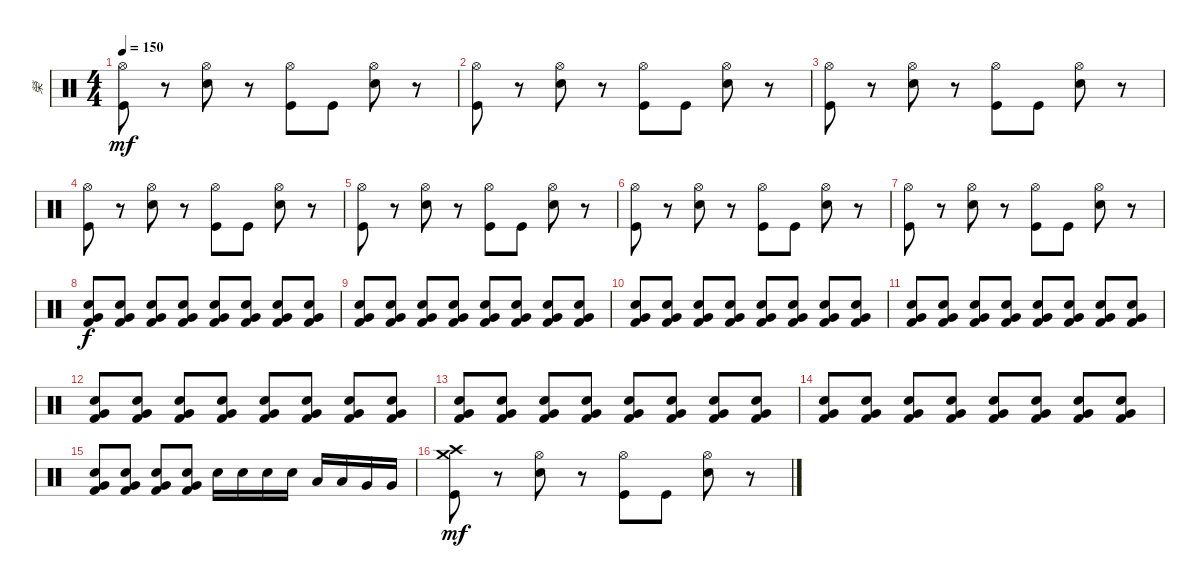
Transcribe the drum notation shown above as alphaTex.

\track ("榮" "榮") {instrument percussion}
\staff {score}
\articulation defaults
\ts (4 4)
\tempo 150
\clef neutral
\ks c
("Hi-Hat (open)" "Kick (hit)").8{dy mf} r.8 ("Hi-Hat (open)" "Snare (hit) 2").8 r.8 ("Hi-Hat (open)" "Kick (hit)").8 "Kick (hit)".8 ("Hi-Hat (open)" "Snare (hit) 2").8 r.8 |
("Hi-Hat (open)" "Kick (hit)").8 r.8 ("Hi-Hat (open)" "Snare (hit) 2").8 r.8 ("Hi-Hat (open)" "Kick (hit)").8 "Kick (hit)".8 ("Hi-Hat (open)" "Snare (hit) 2").8 r.8 |
("Hi-Hat (open)" "Kick (hit)").8 r.8 ("Hi-Hat (open)" "Snare (hit) 2").8 r.8 ("Hi-Hat (open)" "Kick (hit)").8 "Kick (hit)".8 ("Hi-Hat (open)" "Snare (hit) 2").8 r.8 |
("Hi-Hat (open)" "Kick (hit)").8 r.8 ("Hi-Hat (open)" "Snare (hit) 2").8 r.8 ("Hi-Hat (open)" "Kick (hit)").8 "Kick (hit)".8 ("Hi-Hat (open)" "Snare (hit) 2").8 r.8 |
("Hi-Hat (open)" "Kick (hit)").8 r.8 ("Hi-Hat (open)" "Snare (hit) 2").8 r.8 ("Hi-Hat (open)" "Kick (hit)").8 "Kick (hit)".8 ("Hi-Hat (open)" "Snare (hit) 2").8 r.8 |
("Hi-Hat (open)" "Kick (hit)").8 r.8 ("Hi-Hat (open)" "Snare (hit) 2").8 r.8 ("Hi-Hat (open)" "Kick (hit)").8 "Kick (hit)".8 ("Hi-Hat (open)" "Snare (hit) 2").8 r.8 |
("Hi-Hat (open)" "Kick (hit)").8 r.8 ("Hi-Hat (open)" "Snare (hit) 2").8 r.8 ("Hi-Hat (open)" "Kick (hit)").8 "Kick (hit)".8 ("Hi-Hat (open)" "Snare (hit) 2").8 r.8 |
("Electric Snare (hit)" "Very Low Tom (hit)" "Kick (hit) 2").8{dy f} ("Electric Snare (hit)" "Very Low Tom (hit)" "Kick (hit) 2").8 ("Electric Snare (hit)" "Very Low Tom (hit)" "Kick (hit) 2").8 ("Electric Snare (hit)" "Very Low Tom (hit)" "Kick (hit) 2").8 ("Electric Snare (hit)" "Very Low Tom (hit)" "Kick (hit) 2").8 ("Electric Snare (hit)" "Very Low Tom (hit)" "Kick (hit) 2").8 ("Electric Snare (hit)" "Very Low Tom (hit)" "Kick (hit) 2").8 ("Electric Snare (hit)" "Very Low Tom (hit)" "Kick (hit) 2").8 |
("Electric Snare (hit)" "Very Low Tom (hit)" "Kick (hit) 2").8 ("Electric Snare (hit)" "Very Low Tom (hit)" "Kick (hit) 2").8 ("Electric Snare (hit)" "Very Low Tom (hit)" "Kick (hit) 2").8 ("Electric Snare (hit)" "Very Low Tom (hit)" "Kick (hit) 2").8 ("Electric Snare (hit)" "Very Low Tom (hit)" "Kick (hit) 2").8 ("Electric Snare (hit)" "Very Low Tom (hit)" "Kick (hit) 2").8 ("Electric Snare (hit)" "Very Low Tom (hit)" "Kick (hit) 2").8 ("Electric Snare (hit)" "Very Low Tom (hit)" "Kick (hit) 2").8 |
("Electric Snare (hit)" "Very Low Tom (hit)" "Kick (hit) 2").8 ("Electric Snare (hit)" "Very Low Tom (hit)" "Kick (hit) 2").8 ("Electric Snare (hit)" "Very Low Tom (hit)" "Kick (hit) 2").8 ("Electric Snare (hit)" "Very Low Tom (hit)" "Kick (hit) 2").8 ("Electric Snare (hit)" "Very Low Tom (hit)" "Kick (hit) 2").8 ("Electric Snare (hit)" "Very Low Tom (hit)" "Kick (hit) 2").8 ("Electric Snare (hit)" "Very Low Tom (hit)" "Kick (hit) 2").8 ("Electric Snare (hit)" "Very Low Tom (hit)" "Kick (hit) 2").8 |
("Electric Snare (hit)" "Very Low Tom (hit)" "Kick (hit) 2").8 ("Electric Snare (hit)" "Very Low Tom (hit)" "Kick (hit) 2").8 ("Electric Snare (hit)" "Very Low Tom (hit)" "Kick (hit) 2").8 ("Electric Snare (hit)" "Very Low Tom (hit)" "Kick (hit) 2").8 ("Electric Snare (hit)" "Very Low Tom (hit)" "Kick (hit) 2").8 ("Electric Snare (hit)" "Very Low Tom (hit)" "Kick (hit) 2").8 ("Electric Snare (hit)" "Very Low Tom (hit)" "Kick (hit) 2").8 ("Electric Snare (hit)" "Very Low Tom (hit)" "Kick (hit) 2").8 |
("Electric Snare (hit)" "Very Low Tom (hit)" "Kick (hit) 2").8 ("Electric Snare (hit)" "Very Low Tom (hit)" "Kick (hit) 2").8 ("Electric Snare (hit)" "Very Low Tom (hit)" "Kick (hit) 2").8 ("Electric Snare (hit)" "Very Low Tom (hit)" "Kick (hit) 2").8 ("Electric Snare (hit)" "Very Low Tom (hit)" "Kick (hit) 2").8 ("Electric Snare (hit)" "Very Low Tom (hit)" "Kick (hit) 2").8 ("Electric Snare (hit)" "Very Low Tom (hit)" "Kick (hit) 2").8 ("Electric Snare (hit)" "Very Low Tom (hit)" "Kick (hit) 2").8 |
("Electric Snare (hit)" "Very Low Tom (hit)" "Kick (hit) 2").8 ("Electric Snare (hit)" "Very Low Tom (hit)" "Kick (hit) 2").8 ("Electric Snare (hit)" "Very Low Tom (hit)" "Kick (hit) 2").8 ("Electric Snare (hit)" "Very Low Tom (hit)" "Kick (hit) 2").8 ("Electric Snare (hit)" "Very Low Tom (hit)" "Kick (hit) 2").8 ("Electric Snare (hit)" "Very Low Tom (hit)" "Kick (hit) 2").8 ("Electric Snare (hit)" "Very Low Tom (hit)" "Kick (hit) 2").8 ("Electric Snare (hit)" "Very Low Tom (hit)" "Kick (hit) 2").8 |
("Electric Snare (hit)" "Very Low Tom (hit)" "Kick (hit) 2").8 ("Electric Snare (hit)" "Very Low Tom (hit)" "Kick (hit) 2").8 ("Electric Snare (hit)" "Very Low Tom (hit)" "Kick (hit) 2").8 ("Electric Snare (hit)" "Very Low Tom (hit)" "Kick (hit) 2").8 ("Electric Snare (hit)" "Very Low Tom (hit)" "Kick (hit) 2").8 ("Electric Snare (hit)" "Very Low Tom (hit)" "Kick (hit) 2").8 ("Electric Snare (hit)" "Very Low Tom (hit)" "Kick (hit) 2").8 ("Electric Snare (hit)" "Very Low Tom (hit)" "Kick (hit) 2").8 |
("Electric Snare (hit)" "Very Low Tom (hit)" "Kick (hit) 2").8 ("Electric Snare (hit)" "Very Low Tom (hit)" "Kick (hit) 2").8 ("Electric Snare (hit)" "Very Low Tom (hit)" "Kick (hit) 2").8 ("Electric Snare (hit)" "Very Low Tom (hit)" "Kick (hit) 2").8 "Electric Snare (hit)".16 "Electric Snare (hit)".16 "Electric Snare (hit)".16 "Electric Snare (hit)".16 "Low Tom (hit)".16 "Low Tom (hit)".16 "Very Low Tom (hit)".16 "Very Low Tom (hit)".16 |
("Crash high (hit)" "Crash medium (hit)" "Kick (hit)").8{dy mf} r.8 ("Hi-Hat (open)" "Snare (hit) 2").8 r.8 ("Hi-Hat (open)" "Kick (hit)").8 "Kick (hit)".8 ("Hi-Hat (open)" "Snare (hit) 2").8 r.8
